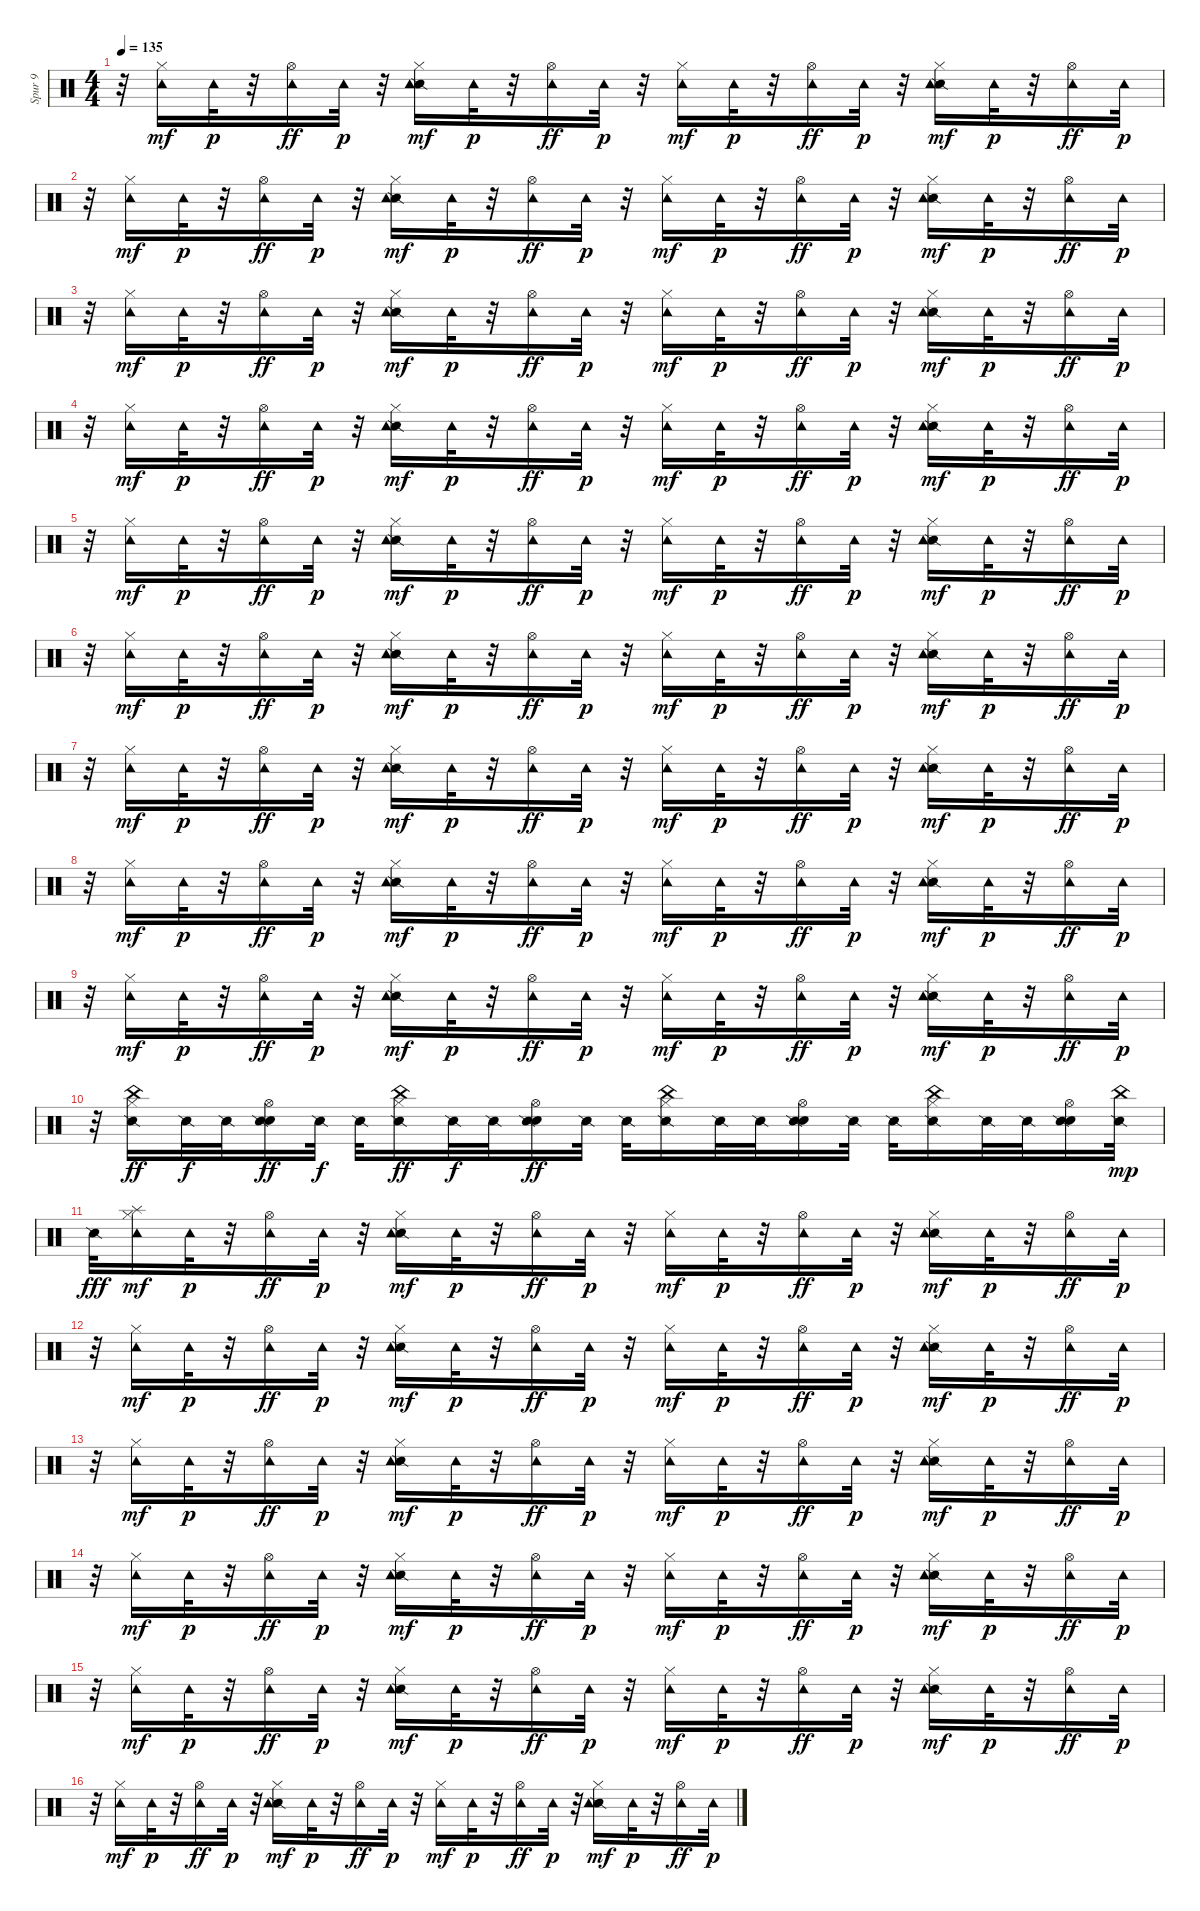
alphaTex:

\track ("Spur 9" "Spur 9") {instrument percussion}
\staff {score}
\articulation defaults
\ts (4 4)
\tempo 135
\clef neutral
\ks c
r.32{dy p} ("Hi-Hat (closed)" "Tambourine (hit)").16{dy mf} "Tambourine (hit)".32{dy p} r.32 ("Hi-Hat (open)" "Tambourine (hit)").16{dy ff} "Tambourine (hit)".32{dy p} r.32 ("Snare (side stick) 2" "Hi-Hat (closed)" "Tambourine (hit)").16{dy mf} "Tambourine (hit)".32{dy p} r.32 ("Hi-Hat (open)" "Tambourine (hit)").16{dy ff} "Tambourine (hit)".32{dy p} r.32 ("Hi-Hat (closed)" "Tambourine (hit)").16{dy mf} "Tambourine (hit)".32{dy p} r.32 ("Hi-Hat (open)" "Tambourine (hit)").16{dy ff} "Tambourine (hit)".32{dy p} r.32 ("Snare (side stick) 2" "Hi-Hat (closed)" "Tambourine (hit)").16{dy mf} "Tambourine (hit)".32{dy p} r.32 ("Hi-Hat (open)" "Tambourine (hit)").16{dy ff} "Tambourine (hit)".32{dy p} |
r.32 ("Hi-Hat (closed)" "Tambourine (hit)").16{dy mf} "Tambourine (hit)".32{dy p} r.32 ("Hi-Hat (open)" "Tambourine (hit)").16{dy ff} "Tambourine (hit)".32{dy p} r.32 ("Snare (side stick) 2" "Hi-Hat (closed)" "Tambourine (hit)").16{dy mf} "Tambourine (hit)".32{dy p} r.32 ("Hi-Hat (open)" "Tambourine (hit)").16{dy ff} "Tambourine (hit)".32{dy p} r.32 ("Hi-Hat (closed)" "Tambourine (hit)").16{dy mf} "Tambourine (hit)".32{dy p} r.32 ("Hi-Hat (open)" "Tambourine (hit)").16{dy ff} "Tambourine (hit)".32{dy p} r.32 ("Snare (side stick) 2" "Hi-Hat (closed)" "Tambourine (hit)").16{dy mf} "Tambourine (hit)".32{dy p} r.32 ("Hi-Hat (open)" "Tambourine (hit)").16{dy ff} "Tambourine (hit)".32{dy p} |
r.32 ("Hi-Hat (closed)" "Tambourine (hit)").16{dy mf} "Tambourine (hit)".32{dy p} r.32 ("Hi-Hat (open)" "Tambourine (hit)").16{dy ff} "Tambourine (hit)".32{dy p} r.32 ("Snare (side stick) 2" "Hi-Hat (closed)" "Tambourine (hit)").16{dy mf} "Tambourine (hit)".32{dy p} r.32 ("Hi-Hat (open)" "Tambourine (hit)").16{dy ff} "Tambourine (hit)".32{dy p} r.32 ("Hi-Hat (closed)" "Tambourine (hit)").16{dy mf} "Tambourine (hit)".32{dy p} r.32 ("Hi-Hat (open)" "Tambourine (hit)").16{dy ff} "Tambourine (hit)".32{dy p} r.32 ("Snare (side stick) 2" "Hi-Hat (closed)" "Tambourine (hit)").16{dy mf} "Tambourine (hit)".32{dy p} r.32 ("Hi-Hat (open)" "Tambourine (hit)").16{dy ff} "Tambourine (hit)".32{dy p} |
r.32 ("Hi-Hat (closed)" "Tambourine (hit)").16{dy mf} "Tambourine (hit)".32{dy p} r.32 ("Hi-Hat (open)" "Tambourine (hit)").16{dy ff} "Tambourine (hit)".32{dy p} r.32 ("Snare (side stick) 2" "Hi-Hat (closed)" "Tambourine (hit)").16{dy mf} "Tambourine (hit)".32{dy p} r.32 ("Hi-Hat (open)" "Tambourine (hit)").16{dy ff} "Tambourine (hit)".32{dy p} r.32 ("Hi-Hat (closed)" "Tambourine (hit)").16{dy mf} "Tambourine (hit)".32{dy p} r.32 ("Hi-Hat (open)" "Tambourine (hit)").16{dy ff} "Tambourine (hit)".32{dy p} r.32 ("Snare (side stick) 2" "Hi-Hat (closed)" "Tambourine (hit)").16{dy mf} "Tambourine (hit)".32{dy p} r.32 ("Hi-Hat (open)" "Tambourine (hit)").16{dy ff} "Tambourine (hit)".32{dy p} |
r.32 ("Hi-Hat (closed)" "Tambourine (hit)").16{dy mf} "Tambourine (hit)".32{dy p} r.32 ("Hi-Hat (open)" "Tambourine (hit)").16{dy ff} "Tambourine (hit)".32{dy p} r.32 ("Snare (side stick) 2" "Hi-Hat (closed)" "Tambourine (hit)").16{dy mf} "Tambourine (hit)".32{dy p} r.32 ("Hi-Hat (open)" "Tambourine (hit)").16{dy ff} "Tambourine (hit)".32{dy p} r.32 ("Hi-Hat (closed)" "Tambourine (hit)").16{dy mf} "Tambourine (hit)".32{dy p} r.32 ("Hi-Hat (open)" "Tambourine (hit)").16{dy ff} "Tambourine (hit)".32{dy p} r.32 ("Snare (side stick) 2" "Hi-Hat (closed)" "Tambourine (hit)").16{dy mf} "Tambourine (hit)".32{dy p} r.32 ("Hi-Hat (open)" "Tambourine (hit)").16{dy ff} "Tambourine (hit)".32{dy p} |
r.32 ("Hi-Hat (closed)" "Tambourine (hit)").16{dy mf} "Tambourine (hit)".32{dy p} r.32 ("Hi-Hat (open)" "Tambourine (hit)").16{dy ff} "Tambourine (hit)".32{dy p} r.32 ("Snare (side stick) 2" "Hi-Hat (closed)" "Tambourine (hit)").16{dy mf} "Tambourine (hit)".32{dy p} r.32 ("Hi-Hat (open)" "Tambourine (hit)").16{dy ff} "Tambourine (hit)".32{dy p} r.32 ("Hi-Hat (closed)" "Tambourine (hit)").16{dy mf} "Tambourine (hit)".32{dy p} r.32 ("Hi-Hat (open)" "Tambourine (hit)").16{dy ff} "Tambourine (hit)".32{dy p} r.32 ("Snare (side stick) 2" "Hi-Hat (closed)" "Tambourine (hit)").16{dy mf} "Tambourine (hit)".32{dy p} r.32 ("Hi-Hat (open)" "Tambourine (hit)").16{dy ff} "Tambourine (hit)".32{dy p} |
r.32 ("Hi-Hat (closed)" "Tambourine (hit)").16{dy mf} "Tambourine (hit)".32{dy p} r.32 ("Hi-Hat (open)" "Tambourine (hit)").16{dy ff} "Tambourine (hit)".32{dy p} r.32 ("Snare (side stick) 2" "Hi-Hat (closed)" "Tambourine (hit)").16{dy mf} "Tambourine (hit)".32{dy p} r.32 ("Hi-Hat (open)" "Tambourine (hit)").16{dy ff} "Tambourine (hit)".32{dy p} r.32 ("Hi-Hat (closed)" "Tambourine (hit)").16{dy mf} "Tambourine (hit)".32{dy p} r.32 ("Hi-Hat (open)" "Tambourine (hit)").16{dy ff} "Tambourine (hit)".32{dy p} r.32 ("Snare (side stick) 2" "Hi-Hat (closed)" "Tambourine (hit)").16{dy mf} "Tambourine (hit)".32{dy p} r.32 ("Hi-Hat (open)" "Tambourine (hit)").16{dy ff} "Tambourine (hit)".32{dy p} |
r.32 ("Hi-Hat (closed)" "Tambourine (hit)").16{dy mf} "Tambourine (hit)".32{dy p} r.32 ("Hi-Hat (open)" "Tambourine (hit)").16{dy ff} "Tambourine (hit)".32{dy p} r.32 ("Snare (side stick) 2" "Hi-Hat (closed)" "Tambourine (hit)").16{dy mf} "Tambourine (hit)".32{dy p} r.32 ("Hi-Hat (open)" "Tambourine (hit)").16{dy ff} "Tambourine (hit)".32{dy p} r.32 ("Hi-Hat (closed)" "Tambourine (hit)").16{dy mf} "Tambourine (hit)".32{dy p} r.32 ("Hi-Hat (open)" "Tambourine (hit)").16{dy ff} "Tambourine (hit)".32{dy p} r.32 ("Snare (side stick) 2" "Hi-Hat (closed)" "Tambourine (hit)").16{dy mf} "Tambourine (hit)".32{dy p} r.32 ("Hi-Hat (open)" "Tambourine (hit)").16{dy ff} "Tambourine (hit)".32{dy p} |
r.32 ("Hi-Hat (closed)" "Tambourine (hit)").16{dy mf} "Tambourine (hit)".32{dy p} r.32 ("Hi-Hat (open)" "Tambourine (hit)").16{dy ff} "Tambourine (hit)".32{dy p} r.32 ("Snare (side stick) 2" "Hi-Hat (closed)" "Tambourine (hit)").16{dy mf} "Tambourine (hit)".32{dy p} r.32 ("Hi-Hat (open)" "Tambourine (hit)").16{dy ff} "Tambourine (hit)".32{dy p} r.32 ("Hi-Hat (closed)" "Tambourine (hit)").16{dy mf} "Tambourine (hit)".32{dy p} r.32 ("Hi-Hat (open)" "Tambourine (hit)").16{dy ff} "Tambourine (hit)".32{dy p} r.32 ("Snare (side stick) 2" "Hi-Hat (closed)" "Tambourine (hit)").16{dy mf} "Tambourine (hit)".32{dy p} r.32 ("Hi-Hat (open)" "Tambourine (hit)").16{dy ff} "Tambourine (hit)".32{dy p} |
r.32 ("Snare (side stick) 2" "Hi-Hat (closed)" "China (hit)").16{dy ff} "Snare (side stick) 2".32{dy f} "Snare (side stick) 2".32 ("Snare (hit)" "Snare (side stick) 2" "Hi-Hat (open)").16{dy ff} "Snare (side stick) 2".32{dy f} "Snare (side stick) 2".32 ("Snare (side stick) 2" "Hi-Hat (closed)" "China (hit)").16{dy ff} "Snare (side stick) 2".32{dy f} "Snare (side stick) 2".32 ("Snare (hit)" "Snare (side stick) 2" "Hi-Hat (open)").16{dy ff} "Snare (side stick) 2".32 "Snare (side stick) 2".32 ("Snare (side stick) 2" "Hi-Hat (closed)" "China (hit)").16 "Snare (side stick) 2".32 "Snare (side stick) 2".32 ("Snare (hit)" "Snare (side stick) 2" "Hi-Hat (open)").16 "Snare (side stick) 2".32 "Snare (side stick) 2".32 ("Snare (side stick) 2" "Hi-Hat (closed)" "China (hit)").16 "Snare (side stick) 2".32 "Snare (side stick) 2".32 ("Snare (hit)" "Snare (side stick) 2" "Hi-Hat (open)").16 ("Snare (side stick) 2" "China (hit)").32{dy mp} |
"Snare (side stick) 2".32{dy fff} ("Splash (hit)" "Hi-Hat (closed)" "Tambourine (hit)").16{dy mf} "Tambourine (hit)".32{dy p} r.32 ("Hi-Hat (open)" "Tambourine (hit)").16{dy ff} "Tambourine (hit)".32{dy p} r.32 ("Snare (side stick) 2" "Hi-Hat (closed)" "Tambourine (hit)").16{dy mf} "Tambourine (hit)".32{dy p} r.32 ("Hi-Hat (open)" "Tambourine (hit)").16{dy ff} "Tambourine (hit)".32{dy p} r.32 ("Hi-Hat (closed)" "Tambourine (hit)").16{dy mf} "Tambourine (hit)".32{dy p} r.32 ("Hi-Hat (open)" "Tambourine (hit)").16{dy ff} "Tambourine (hit)".32{dy p} r.32 ("Snare (side stick) 2" "Hi-Hat (closed)" "Tambourine (hit)").16{dy mf} "Tambourine (hit)".32{dy p} r.32 ("Hi-Hat (open)" "Tambourine (hit)").16{dy ff} "Tambourine (hit)".32{dy p} |
r.32 ("Hi-Hat (closed)" "Tambourine (hit)").16{dy mf} "Tambourine (hit)".32{dy p} r.32 ("Hi-Hat (open)" "Tambourine (hit)").16{dy ff} "Tambourine (hit)".32{dy p} r.32 ("Snare (side stick) 2" "Hi-Hat (closed)" "Tambourine (hit)").16{dy mf} "Tambourine (hit)".32{dy p} r.32 ("Hi-Hat (open)" "Tambourine (hit)").16{dy ff} "Tambourine (hit)".32{dy p} r.32 ("Hi-Hat (closed)" "Tambourine (hit)").16{dy mf} "Tambourine (hit)".32{dy p} r.32 ("Hi-Hat (open)" "Tambourine (hit)").16{dy ff} "Tambourine (hit)".32{dy p} r.32 ("Snare (side stick) 2" "Hi-Hat (closed)" "Tambourine (hit)").16{dy mf} "Tambourine (hit)".32{dy p} r.32 ("Hi-Hat (open)" "Tambourine (hit)").16{dy ff} "Tambourine (hit)".32{dy p} |
r.32 ("Hi-Hat (closed)" "Tambourine (hit)").16{dy mf} "Tambourine (hit)".32{dy p} r.32 ("Hi-Hat (open)" "Tambourine (hit)").16{dy ff} "Tambourine (hit)".32{dy p} r.32 ("Snare (side stick) 2" "Hi-Hat (closed)" "Tambourine (hit)").16{dy mf} "Tambourine (hit)".32{dy p} r.32 ("Hi-Hat (open)" "Tambourine (hit)").16{dy ff} "Tambourine (hit)".32{dy p} r.32 ("Hi-Hat (closed)" "Tambourine (hit)").16{dy mf} "Tambourine (hit)".32{dy p} r.32 ("Hi-Hat (open)" "Tambourine (hit)").16{dy ff} "Tambourine (hit)".32{dy p} r.32 ("Snare (side stick) 2" "Hi-Hat (closed)" "Tambourine (hit)").16{dy mf} "Tambourine (hit)".32{dy p} r.32 ("Hi-Hat (open)" "Tambourine (hit)").16{dy ff} "Tambourine (hit)".32{dy p} |
r.32 ("Hi-Hat (closed)" "Tambourine (hit)").16{dy mf} "Tambourine (hit)".32{dy p} r.32 ("Hi-Hat (open)" "Tambourine (hit)").16{dy ff} "Tambourine (hit)".32{dy p} r.32 ("Snare (side stick) 2" "Hi-Hat (closed)" "Tambourine (hit)").16{dy mf} "Tambourine (hit)".32{dy p} r.32 ("Hi-Hat (open)" "Tambourine (hit)").16{dy ff} "Tambourine (hit)".32{dy p} r.32 ("Hi-Hat (closed)" "Tambourine (hit)").16{dy mf} "Tambourine (hit)".32{dy p} r.32 ("Hi-Hat (open)" "Tambourine (hit)").16{dy ff} "Tambourine (hit)".32{dy p} r.32 ("Snare (side stick) 2" "Hi-Hat (closed)" "Tambourine (hit)").16{dy mf} "Tambourine (hit)".32{dy p} r.32 ("Hi-Hat (open)" "Tambourine (hit)").16{dy ff} "Tambourine (hit)".32{dy p} |
r.32 ("Hi-Hat (closed)" "Tambourine (hit)").16{dy mf} "Tambourine (hit)".32{dy p} r.32 ("Hi-Hat (open)" "Tambourine (hit)").16{dy ff} "Tambourine (hit)".32{dy p} r.32 ("Snare (side stick) 2" "Hi-Hat (closed)" "Tambourine (hit)").16{dy mf} "Tambourine (hit)".32{dy p} r.32 ("Hi-Hat (open)" "Tambourine (hit)").16{dy ff} "Tambourine (hit)".32{dy p} r.32 ("Hi-Hat (closed)" "Tambourine (hit)").16{dy mf} "Tambourine (hit)".32{dy p} r.32 ("Hi-Hat (open)" "Tambourine (hit)").16{dy ff} "Tambourine (hit)".32{dy p} r.32 ("Snare (side stick) 2" "Hi-Hat (closed)" "Tambourine (hit)").16{dy mf} "Tambourine (hit)".32{dy p} r.32 ("Hi-Hat (open)" "Tambourine (hit)").16{dy ff} "Tambourine (hit)".32{dy p} |
r.32 ("Hi-Hat (closed)" "Tambourine (hit)").16{dy mf} "Tambourine (hit)".32{dy p} r.32 ("Hi-Hat (open)" "Tambourine (hit)").16{dy ff} "Tambourine (hit)".32{dy p} r.32 ("Snare (side stick) 2" "Hi-Hat (closed)" "Tambourine (hit)").16{dy mf} "Tambourine (hit)".32{dy p} r.32 ("Hi-Hat (open)" "Tambourine (hit)").16{dy ff} "Tambourine (hit)".32{dy p} r.32 ("Hi-Hat (closed)" "Tambourine (hit)").16{dy mf} "Tambourine (hit)".32{dy p} r.32 ("Hi-Hat (open)" "Tambourine (hit)").16{dy ff} "Tambourine (hit)".32{dy p} r.32 ("Snare (side stick) 2" "Hi-Hat (closed)" "Tambourine (hit)").16{dy mf} "Tambourine (hit)".32{dy p} r.32 ("Hi-Hat (open)" "Tambourine (hit)").16{dy ff} "Tambourine (hit)".32{dy p}
